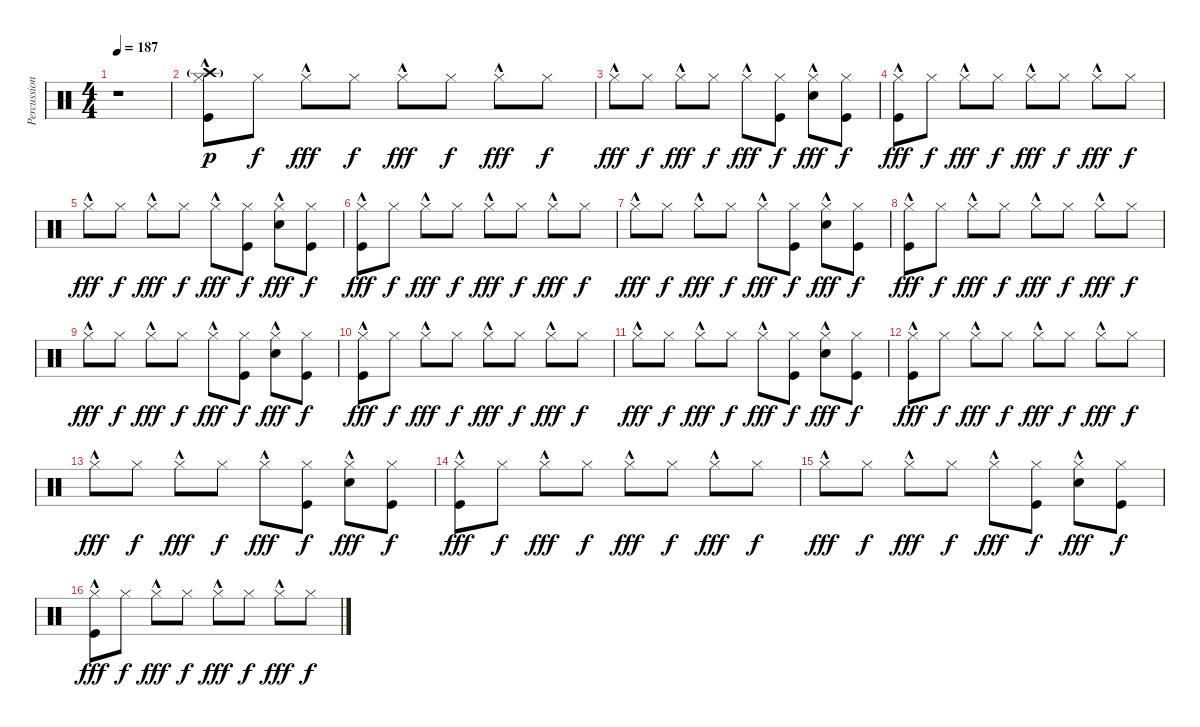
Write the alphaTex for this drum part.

\track ("Percussions" "Percussion") {instrument percussion}
\staff {score}
\articulation defaults
\ts (4 4)
\tempo 187
\clef neutral
\ks c
r.1{dy f} |
("Kick (hit)"{hac} "Hi-Hat (closed)" "Crash high (hit)"{g}).8{dy p} "Hi-Hat (closed)".8{dy f} "Hi-Hat (closed)"{hac}.8{dy fff} "Hi-Hat (closed)".8{dy f} "Hi-Hat (closed)"{hac}.8{dy fff} "Hi-Hat (closed)".8{dy f} "Hi-Hat (closed)"{hac}.8{dy fff} "Hi-Hat (closed)".8{dy f} |
"Hi-Hat (closed)"{hac}.8{dy fff} "Hi-Hat (closed)".8{dy f} "Hi-Hat (closed)"{hac}.8{dy fff} "Hi-Hat (closed)".8{dy f} "Hi-Hat (closed)"{hac}.8{dy fff} ("Hi-Hat (closed)" "Kick (hit)").8{dy f} ("Hi-Hat (closed)"{hac} "Electric Snare (hit)").8{dy fff} ("Hi-Hat (closed)" "Kick (hit)").8{dy f} |
("Hi-Hat (closed)"{hac} "Kick (hit)").8{dy fff} "Hi-Hat (closed)".8{dy f} "Hi-Hat (closed)"{hac}.8{dy fff} "Hi-Hat (closed)".8{dy f} "Hi-Hat (closed)"{hac}.8{dy fff} "Hi-Hat (closed)".8{dy f} "Hi-Hat (closed)"{hac}.8{dy fff} "Hi-Hat (closed)".8{dy f} |
"Hi-Hat (closed)"{hac}.8{dy fff} "Hi-Hat (closed)".8{dy f} "Hi-Hat (closed)"{hac}.8{dy fff} "Hi-Hat (closed)".8{dy f} "Hi-Hat (closed)"{hac}.8{dy fff} ("Hi-Hat (closed)" "Kick (hit)").8{dy f} ("Hi-Hat (closed)"{hac} "Electric Snare (hit)").8{dy fff} ("Hi-Hat (closed)" "Kick (hit)").8{dy f} |
("Hi-Hat (closed)"{hac} "Kick (hit)").8{dy fff} "Hi-Hat (closed)".8{dy f} "Hi-Hat (closed)"{hac}.8{dy fff} "Hi-Hat (closed)".8{dy f} "Hi-Hat (closed)"{hac}.8{dy fff} "Hi-Hat (closed)".8{dy f} "Hi-Hat (closed)"{hac}.8{dy fff} "Hi-Hat (closed)".8{dy f} |
"Hi-Hat (closed)"{hac}.8{dy fff} "Hi-Hat (closed)".8{dy f} "Hi-Hat (closed)"{hac}.8{dy fff} "Hi-Hat (closed)".8{dy f} "Hi-Hat (closed)"{hac}.8{dy fff} ("Hi-Hat (closed)" "Kick (hit)").8{dy f} ("Hi-Hat (closed)"{hac} "Electric Snare (hit)").8{dy fff} ("Hi-Hat (closed)" "Kick (hit)").8{dy f} |
("Hi-Hat (closed)"{hac} "Kick (hit)").8{dy fff} "Hi-Hat (closed)".8{dy f} "Hi-Hat (closed)"{hac}.8{dy fff} "Hi-Hat (closed)".8{dy f} "Hi-Hat (closed)"{hac}.8{dy fff} "Hi-Hat (closed)".8{dy f} "Hi-Hat (closed)"{hac}.8{dy fff} "Hi-Hat (closed)".8{dy f} |
"Hi-Hat (closed)"{hac}.8{dy fff} "Hi-Hat (closed)".8{dy f} "Hi-Hat (closed)"{hac}.8{dy fff} "Hi-Hat (closed)".8{dy f} "Hi-Hat (closed)"{hac}.8{dy fff} ("Hi-Hat (closed)" "Kick (hit)").8{dy f} ("Hi-Hat (closed)"{hac} "Electric Snare (hit)").8{dy fff} ("Hi-Hat (closed)" "Kick (hit)").8{dy f} |
("Hi-Hat (closed)"{hac} "Kick (hit)").8{dy fff} "Hi-Hat (closed)".8{dy f} "Hi-Hat (closed)"{hac}.8{dy fff} "Hi-Hat (closed)".8{dy f} "Hi-Hat (closed)"{hac}.8{dy fff} "Hi-Hat (closed)".8{dy f} "Hi-Hat (closed)"{hac}.8{dy fff} "Hi-Hat (closed)".8{dy f} |
"Hi-Hat (closed)"{hac}.8{dy fff} "Hi-Hat (closed)".8{dy f} "Hi-Hat (closed)"{hac}.8{dy fff} "Hi-Hat (closed)".8{dy f} "Hi-Hat (closed)"{hac}.8{dy fff} ("Hi-Hat (closed)" "Kick (hit)").8{dy f} ("Hi-Hat (closed)"{hac} "Electric Snare (hit)").8{dy fff} ("Hi-Hat (closed)" "Kick (hit)").8{dy f} |
("Hi-Hat (closed)"{hac} "Kick (hit)").8{dy fff} "Hi-Hat (closed)".8{dy f} "Hi-Hat (closed)"{hac}.8{dy fff} "Hi-Hat (closed)".8{dy f} "Hi-Hat (closed)"{hac}.8{dy fff} "Hi-Hat (closed)".8{dy f} "Hi-Hat (closed)"{hac}.8{dy fff} "Hi-Hat (closed)".8{dy f} |
"Hi-Hat (closed)"{hac}.8{dy fff} "Hi-Hat (closed)".8{dy f} "Hi-Hat (closed)"{hac}.8{dy fff} "Hi-Hat (closed)".8{dy f} "Hi-Hat (closed)"{hac}.8{dy fff} ("Hi-Hat (closed)" "Kick (hit)").8{dy f} ("Hi-Hat (closed)"{hac} "Electric Snare (hit)").8{dy fff} ("Hi-Hat (closed)" "Kick (hit)").8{dy f} |
("Hi-Hat (closed)"{hac} "Kick (hit)").8{dy fff} "Hi-Hat (closed)".8{dy f} "Hi-Hat (closed)"{hac}.8{dy fff} "Hi-Hat (closed)".8{dy f} "Hi-Hat (closed)"{hac}.8{dy fff} "Hi-Hat (closed)".8{dy f} "Hi-Hat (closed)"{hac}.8{dy fff} "Hi-Hat (closed)".8{dy f} |
"Hi-Hat (closed)"{hac}.8{dy fff} "Hi-Hat (closed)".8{dy f} "Hi-Hat (closed)"{hac}.8{dy fff} "Hi-Hat (closed)".8{dy f} "Hi-Hat (closed)"{hac}.8{dy fff} ("Hi-Hat (closed)" "Kick (hit)").8{dy f} ("Hi-Hat (closed)"{hac} "Electric Snare (hit)").8{dy fff} ("Hi-Hat (closed)" "Kick (hit)").8{dy f} |
("Hi-Hat (closed)"{hac} "Kick (hit)").8{dy fff} "Hi-Hat (closed)".8{dy f} "Hi-Hat (closed)"{hac}.8{dy fff} "Hi-Hat (closed)".8{dy f} "Hi-Hat (closed)"{hac}.8{dy fff} "Hi-Hat (closed)".8{dy f} "Hi-Hat (closed)"{hac}.8{dy fff} "Hi-Hat (closed)".8{dy f}
